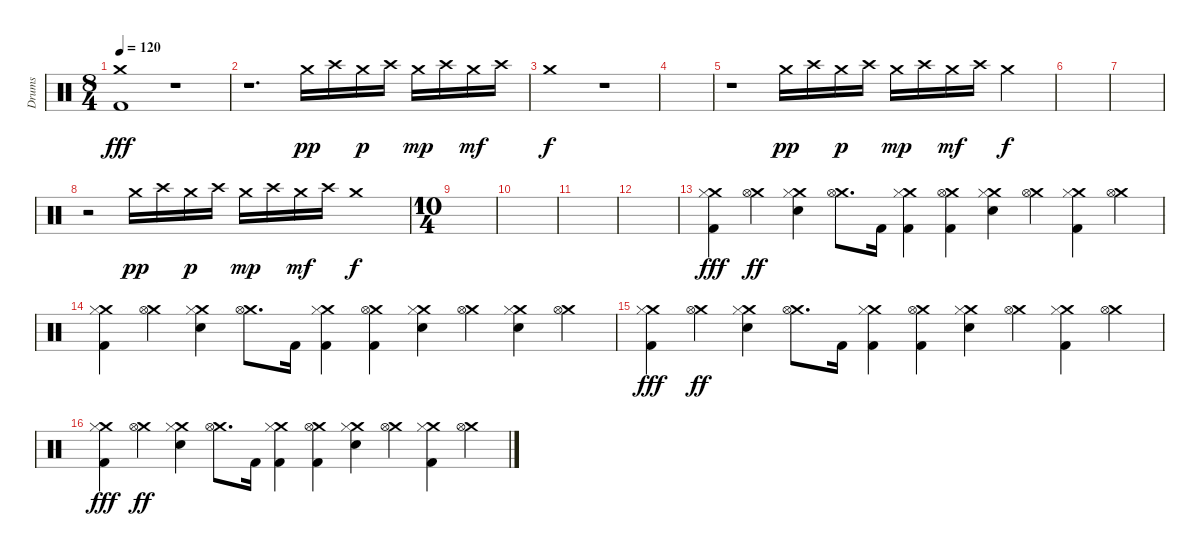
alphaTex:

\track ("Drums" "Drums") {instrument percussion}
\staff {score}
\articulation defaults
\ts (8 4)
\section ("" "")
\tempo 120
\clef neutral
\ks c
("Crash medium (hit)" "Kick (hit) 2").1{dy fff} r.1{volume 5} |
r.1{d} "Crash medium (hit)".16{dy pp} "Crash high (hit)".16 "Crash medium (hit)".16{dy p} "Crash high (hit)".16 "Crash medium (hit)".16{dy mp} "Crash high (hit)".16 "Crash medium (hit)".16{dy mf} "Crash high (hit)".16 |
"Crash medium (hit)".1{dy f} r.1 |
|
r.1 "Crash medium (hit)".16{dy pp} "Crash high (hit)".16 "Crash medium (hit)".16{dy p} "Crash high (hit)".16 "Crash medium (hit)".16{dy mp} "Crash high (hit)".16 "Crash medium (hit)".16{dy mf} "Crash high (hit)".16 "Crash medium (hit)".2{dy f} |
|
|
r.2 "Crash medium (hit)".16{dy pp} "Crash high (hit)".16 "Crash medium (hit)".16{dy p} "Crash high (hit)".16 "Crash medium (hit)".16{dy mp} "Crash high (hit)".16 "Crash medium (hit)".16{dy mf} "Crash high (hit)".16 "Crash medium (hit)".1{dy f} |
\ts (10 4)
|
|
|
|
\section ("" "")
("Crash medium (hit)" "Hi-Hat (closed)" "Kick (hit) 2").4{dy fff volume 16} ("Crash medium (hit)" "Hi-Hat (open)").4{dy ff} ("Crash medium (hit)" "Hi-Hat (closed)" "Electric Snare (hit)").4 ("Crash medium (hit)" "Hi-Hat (open)").8{d} "Kick (hit) 2".16 ("Crash medium (hit)" "Hi-Hat (closed)" "Kick (hit) 2").4 ("Crash medium (hit)" "Hi-Hat (open)" "Kick (hit) 2").4 ("Crash medium (hit)" "Hi-Hat (closed)" "Electric Snare (hit)").4 ("Crash medium (hit)" "Hi-Hat (open)").4 ("Crash medium (hit)" "Hi-Hat (closed)" "Kick (hit) 2").4 ("Crash medium (hit)" "Hi-Hat (open)").4 |
("Crash medium (hit)" "Hi-Hat (closed)" "Kick (hit) 2").4 ("Crash medium (hit)" "Hi-Hat (open)").4 ("Crash medium (hit)" "Hi-Hat (closed)" "Electric Snare (hit)").4 ("Crash medium (hit)" "Hi-Hat (open)").8{d} "Kick (hit) 2".16 ("Crash medium (hit)" "Hi-Hat (closed)" "Kick (hit) 2").4 ("Crash medium (hit)" "Hi-Hat (open)" "Kick (hit) 2").4 ("Crash medium (hit)" "Hi-Hat (closed)" "Electric Snare (hit)").4 ("Crash medium (hit)" "Hi-Hat (open)").4 ("Crash medium (hit)" "Hi-Hat (closed)" "Electric Snare (hit)").4 ("Crash medium (hit)" "Hi-Hat (open)").4 |
("Crash medium (hit)" "Hi-Hat (closed)" "Kick (hit) 2").4{dy fff} ("Crash medium (hit)" "Hi-Hat (open)").4{dy ff} ("Crash medium (hit)" "Hi-Hat (closed)" "Electric Snare (hit)").4 ("Crash medium (hit)" "Hi-Hat (open)").8{d} "Kick (hit) 2".16 ("Crash medium (hit)" "Hi-Hat (closed)" "Kick (hit) 2").4 ("Crash medium (hit)" "Hi-Hat (open)" "Kick (hit) 2").4 ("Crash medium (hit)" "Hi-Hat (closed)" "Electric Snare (hit)").4 ("Crash medium (hit)" "Hi-Hat (open)").4 ("Crash medium (hit)" "Hi-Hat (closed)" "Kick (hit) 2").4 ("Crash medium (hit)" "Hi-Hat (open)").4 |
("Crash medium (hit)" "Hi-Hat (closed)" "Kick (hit) 2").4{dy fff} ("Crash medium (hit)" "Hi-Hat (open)").4{dy ff} ("Crash medium (hit)" "Hi-Hat (closed)" "Electric Snare (hit)").4 ("Crash medium (hit)" "Hi-Hat (open)").8{d} "Kick (hit) 2".16 ("Crash medium (hit)" "Hi-Hat (closed)" "Kick (hit) 2").4 ("Crash medium (hit)" "Hi-Hat (open)" "Kick (hit) 2").4 ("Crash medium (hit)" "Hi-Hat (closed)" "Electric Snare (hit)").4 ("Crash medium (hit)" "Hi-Hat (open)").4 ("Crash medium (hit)" "Hi-Hat (closed)" "Kick (hit) 2").4 ("Crash medium (hit)" "Hi-Hat (open)").4
